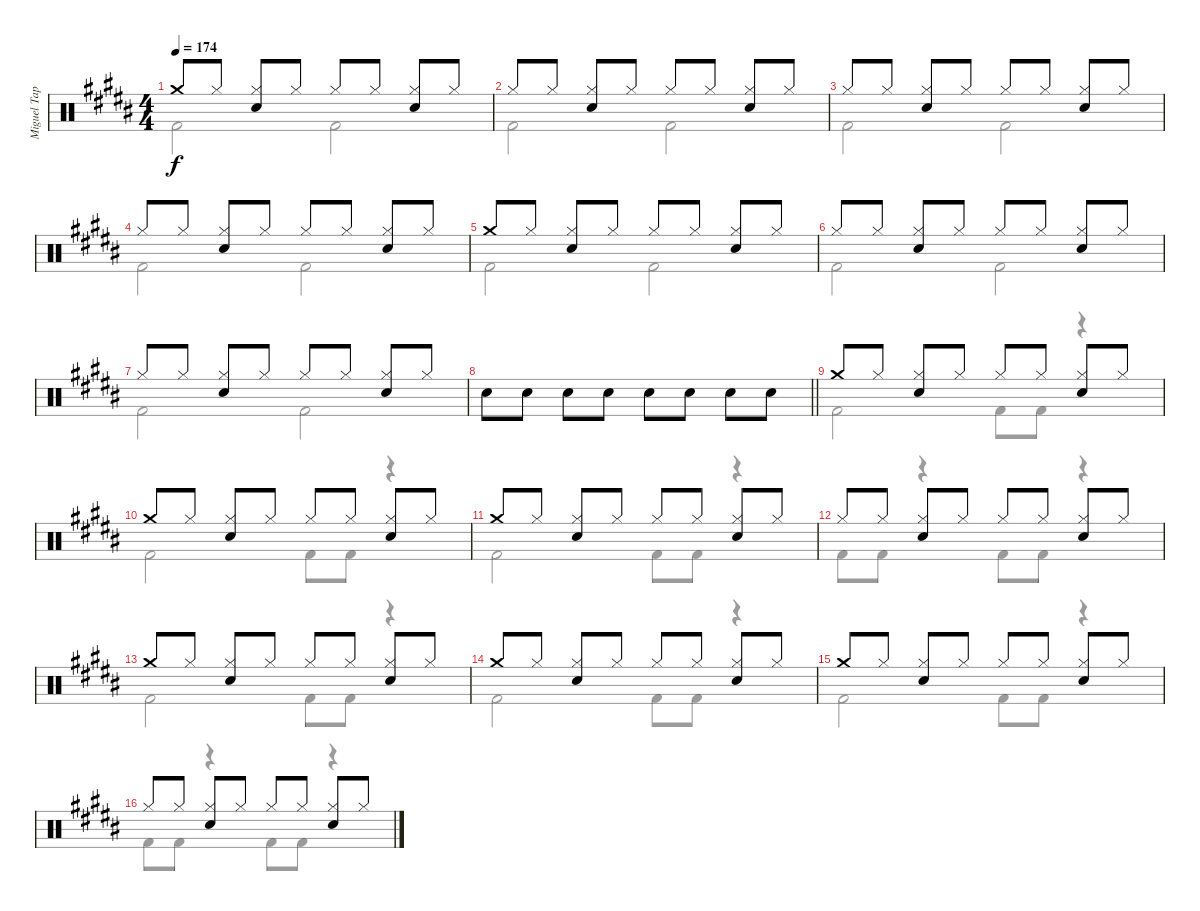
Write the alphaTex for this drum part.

\track ("Miguel Tapia" "Miguel Tap") {instrument percussion}
\staff {score}
\articulation defaults
\voice
\ts (4 4)
\tempo 174
\clef neutral
\ks b "Crash medium (hit)".8{dy f} "Hi-Hat (closed)".8
("Hi-Hat (closed)" "Snare (hit) 2").8 "Hi-Hat (closed)".8 "Hi-Hat (closed)".8 "Hi-Hat (closed)".8 ("Hi-Hat (closed)" "Snare (hit) 2").8 "Hi-Hat (closed)".8 |
"Hi-Hat (closed)".8 "Hi-Hat (closed)".8 ("Hi-Hat (closed)" "Snare (hit) 2").8 "Hi-Hat (closed)".8 "Hi-Hat (closed)".8 "Hi-Hat (closed)".8 ("Hi-Hat (closed)" "Snare (hit) 2").8 "Hi-Hat (closed)".8 |
"Hi-Hat (closed)".8 "Hi-Hat (closed)".8 ("Hi-Hat (closed)" "Snare (hit) 2").8 "Hi-Hat (closed)".8 "Hi-Hat (closed)".8 "Hi-Hat (closed)".8 ("Hi-Hat (closed)" "Snare (hit) 2").8 "Hi-Hat (closed)".8 |
"Hi-Hat (closed)".8 "Hi-Hat (closed)".8 ("Hi-Hat (closed)" "Snare (hit) 2").8 "Hi-Hat (closed)".8 "Hi-Hat (closed)".8 "Hi-Hat (closed)".8 ("Hi-Hat (closed)" "Snare (hit) 2").8 "Hi-Hat (closed)".8 |
"Crash medium (hit)".8 "Hi-Hat (closed)".8 ("Hi-Hat (closed)" "Snare (hit) 2").8 "Hi-Hat (closed)".8 "Hi-Hat (closed)".8 "Hi-Hat (closed)".8 ("Hi-Hat (closed)" "Snare (hit) 2").8 "Hi-Hat (closed)".8 |
"Hi-Hat (closed)".8 "Hi-Hat (closed)".8 ("Hi-Hat (closed)" "Snare (hit) 2").8 "Hi-Hat (closed)".8 "Hi-Hat (closed)".8 "Hi-Hat (closed)".8 ("Hi-Hat (closed)" "Snare (hit) 2").8 "Hi-Hat (closed)".8 |
"Hi-Hat (closed)".8 "Hi-Hat (closed)".8 ("Hi-Hat (closed)" "Snare (hit) 2").8 "Hi-Hat (closed)".8 "Hi-Hat (closed)".8 "Hi-Hat (closed)".8 ("Hi-Hat (closed)" "Snare (hit) 2").8 "Hi-Hat (closed)".8 |
\barLineRight lightlight "Snare (hit) 2".8 "Snare (hit) 2".8 "Snare (hit) 2".8 "Snare (hit) 2".8 "Snare (hit) 2".8 "Snare (hit) 2".8 "Snare (hit) 2".8 "Snare (hit) 2".8
|
"Crash medium (hit)".8 "Hi-Hat (closed)".8 ("Hi-Hat (closed)" "Snare (hit) 2").8 "Hi-Hat (closed)".8 "Hi-Hat (closed)".8 "Hi-Hat (closed)".8 ("Hi-Hat (closed)" "Snare (hit) 2").8 "Hi-Hat (closed)".8 |
"Crash medium (hit)".8 "Hi-Hat (closed)".8 ("Hi-Hat (closed)" "Snare (hit) 2").8 "Hi-Hat (closed)".8 "Hi-Hat (closed)".8 "Hi-Hat (closed)".8 ("Hi-Hat (closed)" "Snare (hit) 2").8 "Hi-Hat (closed)".8 |
"Crash medium (hit)".8 "Hi-Hat (closed)".8 ("Hi-Hat (closed)" "Snare (hit) 2").8 "Hi-Hat (closed)".8 "Hi-Hat (closed)".8 "Hi-Hat (closed)".8 ("Hi-Hat (closed)" "Snare (hit) 2").8 "Hi-Hat (closed)".8 |
"Hi-Hat (closed)".8 "Hi-Hat (closed)".8 ("Hi-Hat (closed)" "Snare (hit) 2").8 "Hi-Hat (closed)".8 "Hi-Hat (closed)".8 "Hi-Hat (closed)".8 ("Hi-Hat (closed)" "Snare (hit) 2").8 "Hi-Hat (closed)".8 |
"Crash medium (hit)".8 "Hi-Hat (closed)".8 ("Hi-Hat (closed)" "Snare (hit) 2").8 "Hi-Hat (closed)".8 "Hi-Hat (closed)".8 "Hi-Hat (closed)".8 ("Hi-Hat (closed)" "Snare (hit) 2").8 "Hi-Hat (closed)".8 |
"Crash medium (hit)".8 "Hi-Hat (closed)".8 ("Hi-Hat (closed)" "Snare (hit) 2").8 "Hi-Hat (closed)".8 "Hi-Hat (closed)".8 "Hi-Hat (closed)".8 ("Hi-Hat (closed)" "Snare (hit) 2").8 "Hi-Hat (closed)".8 |
"Crash medium (hit)".8 "Hi-Hat (closed)".8 ("Hi-Hat (closed)" "Snare (hit) 2").8 "Hi-Hat (closed)".8 "Hi-Hat (closed)".8 "Hi-Hat (closed)".8 ("Hi-Hat (closed)" "Snare (hit) 2").8 "Hi-Hat (closed)".8 |
"Hi-Hat (closed)".8 "Hi-Hat (closed)".8 ("Hi-Hat (closed)" "Snare (hit) 2").8 "Hi-Hat (closed)".8 "Hi-Hat (closed)".8 "Hi-Hat (closed)".8 ("Hi-Hat (closed)" "Snare (hit) 2").8 "Hi-Hat (closed)".8
\voice
\clef neutral
\ottava regular
\simile none
\ks b "Kick (hit) 2".2{dy f} "Kick (hit) 2".2
|
"Kick (hit) 2".2 "Kick (hit) 2".2 |
"Kick (hit) 2".2 "Kick (hit) 2".2 |
"Kick (hit) 2".2 "Kick (hit) 2".2 |
"Kick (hit) 2".2 "Kick (hit) 2".2 |
"Kick (hit) 2".2 "Kick (hit) 2".2 |
"Kick (hit) 2".2 "Kick (hit) 2".2 |
\barLineRight lightlight
|
"Kick (hit) 2".2 "Kick (hit) 2".8 "Kick (hit) 2".8 r.4 |
"Kick (hit) 2".2 "Kick (hit) 2".8 "Kick (hit) 2".8 r.4 |
"Kick (hit) 2".2 "Kick (hit) 2".8 "Kick (hit) 2".8 r.4 |
"Kick (hit) 2".8 "Kick (hit) 2".8 r.4 "Kick (hit) 2".8 "Kick (hit) 2".8 r.4 |
"Kick (hit) 2".2 "Kick (hit) 2".8 "Kick (hit) 2".8 r.4 |
"Kick (hit) 2".2 "Kick (hit) 2".8 "Kick (hit) 2".8 r.4 |
"Kick (hit) 2".2 "Kick (hit) 2".8 "Kick (hit) 2".8 r.4 |
"Kick (hit) 2".8 "Kick (hit) 2".8 r.4 "Kick (hit) 2".8 "Kick (hit) 2".8 r.4
